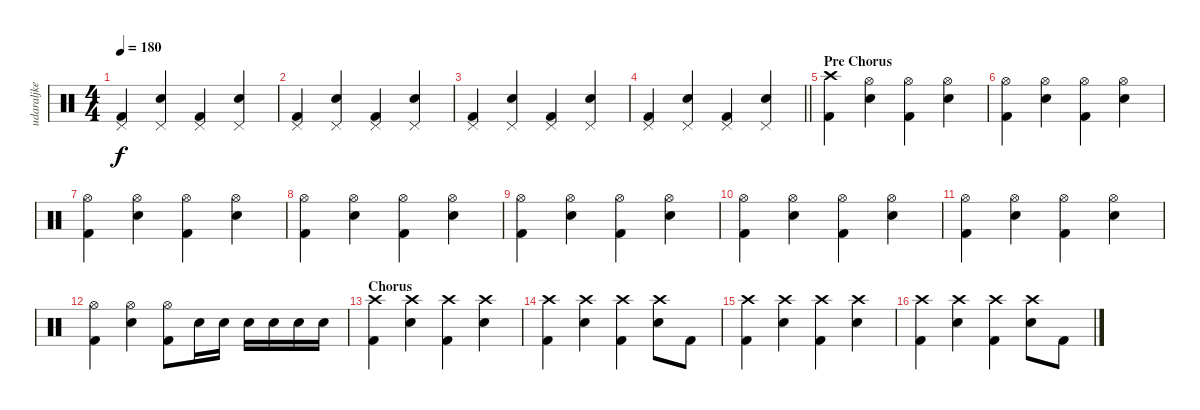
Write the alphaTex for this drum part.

\track ("udaraljke" "udaraljke") {instrument percussion}
\staff {score}
\articulation defaults
\ts (4 4)
\tempo 180
\clef neutral
\ks c
("Pedal Hi-Hat (hit)" "Kick (hit) 2").4{dy f} ("Pedal Hi-Hat (hit)" "Snare (hit) 2").4 ("Pedal Hi-Hat (hit)" "Kick (hit) 2").4 ("Pedal Hi-Hat (hit)" "Snare (hit) 2").4 |
("Pedal Hi-Hat (hit)" "Kick (hit) 2").4 ("Pedal Hi-Hat (hit)" "Snare (hit) 2").4 ("Pedal Hi-Hat (hit)" "Kick (hit) 2").4 ("Pedal Hi-Hat (hit)" "Snare (hit) 2").4 |
("Pedal Hi-Hat (hit)" "Kick (hit) 2").4 ("Pedal Hi-Hat (hit)" "Snare (hit) 2").4 ("Pedal Hi-Hat (hit)" "Kick (hit) 2").4 ("Pedal Hi-Hat (hit)" "Snare (hit) 2").4 |
\barLineRight lightlight
("Pedal Hi-Hat (hit)" "Kick (hit) 2").4 ("Pedal Hi-Hat (hit)" "Snare (hit) 2").4 ("Pedal Hi-Hat (hit)" "Kick (hit) 2").4 ("Pedal Hi-Hat (hit)" "Snare (hit) 2").4 |
\section ("" "Pre Chorus")
("Crash high (hit)" "Kick (hit) 2").4 ("Hi-Hat (open)" "Snare (hit) 2").4 ("Hi-Hat (open)" "Kick (hit) 2").4 ("Hi-Hat (open)" "Snare (hit) 2").4 |
("Hi-Hat (open)" "Kick (hit) 2").4 ("Hi-Hat (open)" "Snare (hit) 2").4 ("Hi-Hat (open)" "Kick (hit) 2").4 ("Hi-Hat (open)" "Snare (hit) 2").4 |
("Hi-Hat (open)" "Kick (hit) 2").4 ("Hi-Hat (open)" "Snare (hit) 2").4 ("Hi-Hat (open)" "Kick (hit) 2").4 ("Hi-Hat (open)" "Snare (hit) 2").4 |
("Hi-Hat (open)" "Kick (hit) 2").4 ("Hi-Hat (open)" "Snare (hit) 2").4 ("Hi-Hat (open)" "Kick (hit) 2").4 ("Hi-Hat (open)" "Snare (hit) 2").4 |
("Hi-Hat (open)" "Kick (hit) 2").4 ("Hi-Hat (open)" "Snare (hit) 2").4 ("Hi-Hat (open)" "Kick (hit) 2").4 ("Hi-Hat (open)" "Snare (hit) 2").4 |
("Hi-Hat (open)" "Kick (hit) 2").4 ("Hi-Hat (open)" "Snare (hit) 2").4 ("Hi-Hat (open)" "Kick (hit) 2").4 ("Hi-Hat (open)" "Snare (hit) 2").4 |
("Hi-Hat (open)" "Kick (hit) 2").4 ("Hi-Hat (open)" "Snare (hit) 2").4 ("Hi-Hat (open)" "Kick (hit) 2").4 ("Hi-Hat (open)" "Snare (hit) 2").4 |
("Hi-Hat (open)" "Kick (hit) 2").4 ("Hi-Hat (open)" "Snare (hit) 2").4 ("Hi-Hat (open)" "Kick (hit) 2").8 "Snare (hit) 2".16 "Snare (hit) 2".16 "Snare (hit) 2".16 "Snare (hit) 2".16 "Snare (hit) 2".16 "Snare (hit) 2".16 |
\section ("" "Chorus")
("Crash high (hit)" "Kick (hit) 2").4 ("Crash high (hit)" "Snare (hit) 2").4 ("Crash high (hit)" "Kick (hit) 2").4 ("Crash high (hit)" "Snare (hit) 2").4 |
("Crash high (hit)" "Kick (hit) 2").4 ("Crash high (hit)" "Snare (hit) 2").4 ("Crash high (hit)" "Kick (hit) 2").4 ("Crash high (hit)" "Snare (hit) 2").8 "Kick (hit) 2".8 |
("Crash high (hit)" "Kick (hit) 2").4 ("Crash high (hit)" "Snare (hit) 2").4 ("Crash high (hit)" "Kick (hit) 2").4 ("Crash high (hit)" "Snare (hit) 2").4 |
("Crash high (hit)" "Kick (hit) 2").4 ("Crash high (hit)" "Snare (hit) 2").4 ("Crash high (hit)" "Kick (hit) 2").4 ("Crash high (hit)" "Snare (hit) 2").8 "Kick (hit) 2".8
